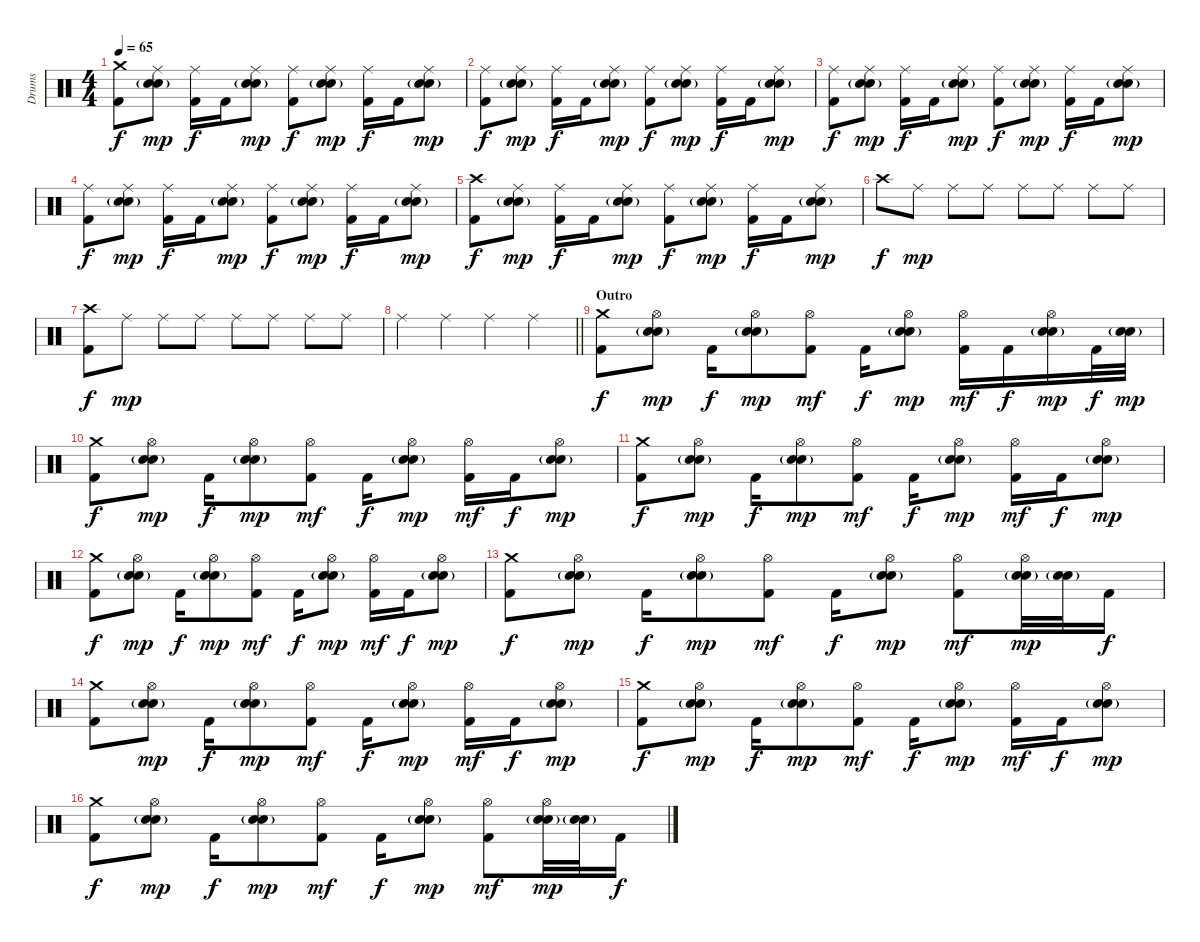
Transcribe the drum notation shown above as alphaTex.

\track ("Drums" "Drums") {instrument percussion}
\staff {score}
\articulation defaults
\ts (4 4)
\tempo 65
\clef neutral
\ks c
("Crash medium (hit)" "Kick (hit) 2").8{dy f} ("Ride (middle)" "Snare (hit) 2"{g} "Electric Snare (hit)").8{dy mp} ("Ride (middle)" "Kick (hit) 2").16{dy f} "Kick (hit) 2".16 ("Ride (middle)" "Snare (hit) 2"{g} "Electric Snare (hit)").8{dy mp} ("Ride (middle)" "Kick (hit) 2").8{dy f} ("Ride (middle)" "Snare (hit) 2"{g} "Electric Snare (hit)").8{dy mp} ("Ride (middle)" "Kick (hit) 2").16{dy f} "Kick (hit) 2".16 ("Ride (middle)" "Snare (hit) 2"{g} "Electric Snare (hit)").8{dy mp} |
("Ride (middle)" "Kick (hit) 2").8{dy f} ("Ride (middle)" "Snare (hit) 2"{g} "Electric Snare (hit)").8{dy mp} ("Ride (middle)" "Kick (hit) 2").16{dy f} "Kick (hit) 2".16 ("Ride (middle)" "Snare (hit) 2"{g} "Electric Snare (hit)").8{dy mp} ("Ride (middle)" "Kick (hit) 2").8{dy f} ("Ride (middle)" "Snare (hit) 2"{g} "Electric Snare (hit)").8{dy mp} ("Ride (middle)" "Kick (hit) 2").16{dy f} "Kick (hit) 2".16 ("Ride (middle)" "Snare (hit) 2"{g} "Electric Snare (hit)").8{dy mp} |
("Ride (middle)" "Kick (hit) 2").8{dy f} ("Ride (middle)" "Snare (hit) 2"{g} "Electric Snare (hit)").8{dy mp} ("Ride (middle)" "Kick (hit) 2").16{dy f} "Kick (hit) 2".16 ("Ride (middle)" "Snare (hit) 2"{g} "Electric Snare (hit)").8{dy mp} ("Ride (middle)" "Kick (hit) 2").8{dy f} ("Ride (middle)" "Snare (hit) 2"{g} "Electric Snare (hit)").8{dy mp} ("Ride (middle)" "Kick (hit) 2").16{dy f} "Kick (hit) 2".16 ("Ride (middle)" "Snare (hit) 2"{g} "Electric Snare (hit)").8{dy mp} |
("Ride (middle)" "Kick (hit) 2").8{dy f} ("Ride (middle)" "Snare (hit) 2"{g} "Electric Snare (hit)").8{dy mp} ("Ride (middle)" "Kick (hit) 2").16{dy f} "Kick (hit) 2".16 ("Ride (middle)" "Snare (hit) 2"{g} "Electric Snare (hit)").8{dy mp} ("Ride (middle)" "Kick (hit) 2").8{dy f} ("Ride (middle)" "Snare (hit) 2"{g} "Electric Snare (hit)").8{dy mp} ("Ride (middle)" "Kick (hit) 2").16{dy f} "Kick (hit) 2".16 ("Ride (middle)" "Snare (hit) 2"{g} "Electric Snare (hit)").8{dy mp} |
("Crash high (hit)" "Kick (hit) 2").8{dy f} ("Ride (middle)" "Snare (hit) 2"{g} "Electric Snare (hit)").8{dy mp} ("Ride (middle)" "Kick (hit) 2").16{dy f} "Kick (hit) 2".16 ("Ride (middle)" "Snare (hit) 2"{g} "Electric Snare (hit)").8{dy mp} ("Ride (middle)" "Kick (hit) 2").8{dy f} ("Ride (middle)" "Snare (hit) 2"{g} "Electric Snare (hit)").8{dy mp} ("Ride (middle)" "Kick (hit) 2").16{dy f} "Kick (hit) 2".16 ("Ride (middle)" "Snare (hit) 2"{g} "Electric Snare (hit)").8{dy mp} |
"Crash high (hit)".8{dy f} "Ride (middle)".8{dy mp} "Ride (middle)".8 "Ride (middle)".8 "Ride (middle)".8 "Ride (middle)".8 "Ride (middle)".8 "Ride (middle)".8 |
("Crash high (hit)" "Kick (hit) 2").8{dy f} "Ride (middle)".8{dy mp} "Ride (middle)".8 "Ride (middle)".8 "Ride (middle)".8 "Ride (middle)".8 "Ride (middle)".8 "Ride (middle)".8 |
\barLineRight lightlight "Ride (middle)".4 "Ride (middle)".4 "Ride (middle)".4 "Ride (middle)".4
|
\section ("" "Outro")
("Crash medium (hit)" "Kick (hit) 2").8{dy f} ("Hi-Hat (open)" "Snare (hit) 2"{g} "Electric Snare (hit)").8{dy mp} "Kick (hit) 2".16{dy f} ("Hi-Hat (open)" "Snare (hit) 2"{g} "Electric Snare (hit)").8{dy mp} ("Hi-Hat (open)" "Kick (hit) 2").8{dy mf} "Kick (hit) 2".16{dy f} ("Hi-Hat (open)" "Snare (hit) 2"{g} "Electric Snare (hit)").8{dy mp} ("Hi-Hat (open)" "Kick (hit) 2").16{dy mf} "Kick (hit) 2".16{dy f} ("Hi-Hat (open)" "Snare (hit) 2"{g} "Electric Snare (hit)").16{dy mp} "Kick (hit) 2".32{dy f} ("Snare (hit) 2"{g} "Electric Snare (hit)").32{dy mp} |
("Crash medium (hit)" "Kick (hit) 2").8{dy f} ("Hi-Hat (open)" "Snare (hit) 2"{g} "Electric Snare (hit)").8{dy mp} "Kick (hit) 2".16{dy f} ("Hi-Hat (open)" "Snare (hit) 2"{g} "Electric Snare (hit)").8{dy mp} ("Hi-Hat (open)" "Kick (hit) 2").8{dy mf} "Kick (hit) 2".16{dy f} ("Hi-Hat (open)" "Snare (hit) 2"{g} "Electric Snare (hit)").8{dy mp} ("Hi-Hat (open)" "Kick (hit) 2").16{dy mf} "Kick (hit) 2".16{dy f} ("Hi-Hat (open)" "Snare (hit) 2"{g} "Electric Snare (hit)").8{dy mp} |
("Crash medium (hit)" "Kick (hit) 2").8{dy f} ("Hi-Hat (open)" "Snare (hit) 2"{g} "Electric Snare (hit)").8{dy mp} "Kick (hit) 2".16{dy f} ("Hi-Hat (open)" "Snare (hit) 2"{g} "Electric Snare (hit)").8{dy mp} ("Hi-Hat (open)" "Kick (hit) 2").8{dy mf} "Kick (hit) 2".16{dy f} ("Hi-Hat (open)" "Snare (hit) 2"{g} "Electric Snare (hit)").8{dy mp} ("Hi-Hat (open)" "Kick (hit) 2").16{dy mf} "Kick (hit) 2".16{dy f} ("Hi-Hat (open)" "Snare (hit) 2"{g} "Electric Snare (hit)").8{dy mp} |
("Crash medium (hit)" "Kick (hit) 2").8{dy f} ("Hi-Hat (open)" "Snare (hit) 2"{g} "Electric Snare (hit)").8{dy mp} "Kick (hit) 2".16{dy f} ("Hi-Hat (open)" "Snare (hit) 2"{g} "Electric Snare (hit)").8{dy mp} ("Hi-Hat (open)" "Kick (hit) 2").8{dy mf} "Kick (hit) 2".16{dy f} ("Hi-Hat (open)" "Snare (hit) 2"{g} "Electric Snare (hit)").8{dy mp} ("Hi-Hat (open)" "Kick (hit) 2").16{dy mf} "Kick (hit) 2".16{dy f} ("Hi-Hat (open)" "Snare (hit) 2"{g} "Electric Snare (hit)").8{dy mp} |
("Crash medium (hit)" "Kick (hit) 2").8{dy f} ("Hi-Hat (open)" "Snare (hit) 2"{g} "Electric Snare (hit)").8{dy mp} "Kick (hit) 2".16{dy f} ("Hi-Hat (open)" "Snare (hit) 2"{g} "Electric Snare (hit)").8{dy mp} ("Hi-Hat (open)" "Kick (hit) 2").8{dy mf} "Kick (hit) 2".16{dy f} ("Hi-Hat (open)" "Snare (hit) 2"{g} "Electric Snare (hit)").8{dy mp} ("Hi-Hat (open)" "Kick (hit) 2").8{dy mf} ("Hi-Hat (open)" "Snare (hit) 2"{g} "Electric Snare (hit)").32{dy mp} ("Snare (hit) 2"{g} "Electric Snare (hit)").32 "Kick (hit) 2".16{dy f} |
("Crash medium (hit)" "Kick (hit) 2").8 ("Hi-Hat (open)" "Snare (hit) 2"{g} "Electric Snare (hit)").8{dy mp} "Kick (hit) 2".16{dy f} ("Hi-Hat (open)" "Snare (hit) 2"{g} "Electric Snare (hit)").8{dy mp} ("Hi-Hat (open)" "Kick (hit) 2").8{dy mf} "Kick (hit) 2".16{dy f} ("Hi-Hat (open)" "Snare (hit) 2"{g} "Electric Snare (hit)").8{dy mp} ("Hi-Hat (open)" "Kick (hit) 2").16{dy mf} "Kick (hit) 2".16{dy f} ("Hi-Hat (open)" "Snare (hit) 2"{g} "Electric Snare (hit)").8{dy mp} |
("Crash medium (hit)" "Kick (hit) 2").8{dy f} ("Hi-Hat (open)" "Snare (hit) 2"{g} "Electric Snare (hit)").8{dy mp} "Kick (hit) 2".16{dy f} ("Hi-Hat (open)" "Snare (hit) 2"{g} "Electric Snare (hit)").8{dy mp} ("Hi-Hat (open)" "Kick (hit) 2").8{dy mf} "Kick (hit) 2".16{dy f} ("Hi-Hat (open)" "Snare (hit) 2"{g} "Electric Snare (hit)").8{dy mp} ("Hi-Hat (open)" "Kick (hit) 2").16{dy mf} "Kick (hit) 2".16{dy f} ("Hi-Hat (open)" "Snare (hit) 2"{g} "Electric Snare (hit)").8{dy mp} |
("Crash medium (hit)" "Kick (hit) 2").8{dy f} ("Hi-Hat (open)" "Snare (hit) 2"{g} "Electric Snare (hit)").8{dy mp} "Kick (hit) 2".16{dy f} ("Hi-Hat (open)" "Snare (hit) 2"{g} "Electric Snare (hit)").8{dy mp} ("Hi-Hat (open)" "Kick (hit) 2").8{dy mf} "Kick (hit) 2".16{dy f} ("Hi-Hat (open)" "Snare (hit) 2"{g} "Electric Snare (hit)").8{dy mp} ("Hi-Hat (open)" "Kick (hit) 2").8{dy mf} ("Hi-Hat (open)" "Snare (hit) 2"{g} "Electric Snare (hit)").32{dy mp} ("Snare (hit) 2"{g} "Electric Snare (hit)").32 "Kick (hit) 2".16{dy f}
